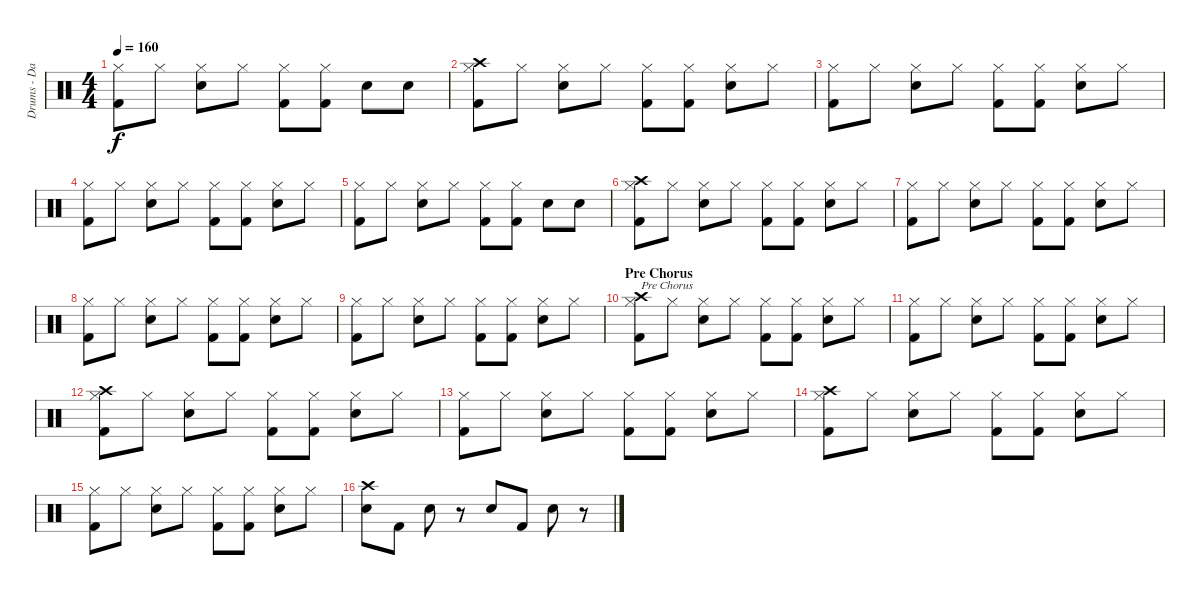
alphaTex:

\track ("Drums - Daniel Zimmermann" "Drums - Da") {instrument percussion}
\staff {score}
\articulation defaults
\ts (4 4)
\tempo 160
\clef neutral
\ks c
("Hi-Hat (closed)" "Kick (hit) 2").8{dy f} "Hi-Hat (closed)".8 ("Hi-Hat (closed)" "Snare (hit) 2").8 "Hi-Hat (closed)".8 ("Hi-Hat (closed)" "Kick (hit) 2").8 ("Hi-Hat (closed)" "Kick (hit) 2").8 "Snare (hit) 2".8 "Snare (hit) 2".8 |
("Hi-Hat (closed)" "Kick (hit) 2" "Crash high (hit)").8 "Hi-Hat (closed)".8 ("Hi-Hat (closed)" "Snare (hit) 2").8 "Hi-Hat (closed)".8 ("Hi-Hat (closed)" "Kick (hit) 2").8 ("Hi-Hat (closed)" "Kick (hit) 2").8 ("Hi-Hat (closed)" "Snare (hit) 2").8 "Hi-Hat (closed)".8 |
("Hi-Hat (closed)" "Kick (hit) 2").8 "Hi-Hat (closed)".8 ("Hi-Hat (closed)" "Snare (hit) 2").8 "Hi-Hat (closed)".8 ("Hi-Hat (closed)" "Kick (hit) 2").8 ("Hi-Hat (closed)" "Kick (hit) 2").8 ("Hi-Hat (closed)" "Snare (hit) 2").8 "Hi-Hat (closed)".8 |
("Hi-Hat (closed)" "Kick (hit) 2").8 "Hi-Hat (closed)".8 ("Hi-Hat (closed)" "Snare (hit) 2").8 "Hi-Hat (closed)".8 ("Hi-Hat (closed)" "Kick (hit) 2").8 ("Hi-Hat (closed)" "Kick (hit) 2").8 ("Hi-Hat (closed)" "Snare (hit) 2").8 "Hi-Hat (closed)".8 |
("Hi-Hat (closed)" "Kick (hit) 2").8 "Hi-Hat (closed)".8 ("Hi-Hat (closed)" "Snare (hit) 2").8 "Hi-Hat (closed)".8 ("Hi-Hat (closed)" "Kick (hit) 2").8 ("Hi-Hat (closed)" "Kick (hit) 2").8 "Snare (hit) 2".8 "Snare (hit) 2".8 |
("Hi-Hat (closed)" "Kick (hit) 2" "Crash high (hit)").8 "Hi-Hat (closed)".8 ("Hi-Hat (closed)" "Snare (hit) 2").8 "Hi-Hat (closed)".8 ("Hi-Hat (closed)" "Kick (hit) 2").8 ("Hi-Hat (closed)" "Kick (hit) 2").8 ("Hi-Hat (closed)" "Snare (hit) 2").8 "Hi-Hat (closed)".8 |
("Hi-Hat (closed)" "Kick (hit) 2").8 "Hi-Hat (closed)".8 ("Hi-Hat (closed)" "Snare (hit) 2").8 "Hi-Hat (closed)".8 ("Hi-Hat (closed)" "Kick (hit) 2").8 ("Hi-Hat (closed)" "Kick (hit) 2").8 ("Hi-Hat (closed)" "Snare (hit) 2").8 "Hi-Hat (closed)".8 |
("Hi-Hat (closed)" "Kick (hit) 2").8 "Hi-Hat (closed)".8 ("Hi-Hat (closed)" "Snare (hit) 2").8 "Hi-Hat (closed)".8 ("Hi-Hat (closed)" "Kick (hit) 2").8 ("Hi-Hat (closed)" "Kick (hit) 2").8 ("Hi-Hat (closed)" "Snare (hit) 2").8 "Hi-Hat (closed)".8 |
("Hi-Hat (closed)" "Kick (hit) 2").8 "Hi-Hat (closed)".8 ("Hi-Hat (closed)" "Snare (hit) 2").8 "Hi-Hat (closed)".8 ("Hi-Hat (closed)" "Kick (hit) 2").8 ("Hi-Hat (closed)" "Kick (hit) 2").8 ("Hi-Hat (closed)" "Snare (hit) 2").8 "Hi-Hat (closed)".8 |
\section ("" "Pre Chorus")
("Hi-Hat (closed)" "Kick (hit) 2" "Crash high (hit)").8{txt "Pre Chorus"} "Hi-Hat (closed)".8 ("Hi-Hat (closed)" "Snare (hit) 2").8 "Hi-Hat (closed)".8 ("Hi-Hat (closed)" "Kick (hit) 2").8 ("Hi-Hat (closed)" "Kick (hit) 2").8 ("Hi-Hat (closed)" "Snare (hit) 2").8 "Hi-Hat (closed)".8 |
("Hi-Hat (closed)" "Kick (hit) 2").8 "Hi-Hat (closed)".8 ("Hi-Hat (closed)" "Snare (hit) 2").8 "Hi-Hat (closed)".8 ("Hi-Hat (closed)" "Kick (hit) 2").8 ("Hi-Hat (closed)" "Kick (hit) 2").8 ("Hi-Hat (closed)" "Snare (hit) 2").8 "Hi-Hat (closed)".8 |
("Hi-Hat (closed)" "Kick (hit) 2" "Crash high (hit)").8 "Hi-Hat (closed)".8 ("Hi-Hat (closed)" "Snare (hit) 2").8 "Hi-Hat (closed)".8 ("Hi-Hat (closed)" "Kick (hit) 2").8 ("Hi-Hat (closed)" "Kick (hit) 2").8 ("Hi-Hat (closed)" "Snare (hit) 2").8 "Hi-Hat (closed)".8 |
("Hi-Hat (closed)" "Kick (hit) 2").8 "Hi-Hat (closed)".8 ("Hi-Hat (closed)" "Snare (hit) 2").8 "Hi-Hat (closed)".8 ("Hi-Hat (closed)" "Kick (hit) 2").8 ("Hi-Hat (closed)" "Kick (hit) 2").8 ("Hi-Hat (closed)" "Snare (hit) 2").8 "Hi-Hat (closed)".8 |
("Hi-Hat (closed)" "Kick (hit) 2" "Crash high (hit)").8 "Hi-Hat (closed)".8 ("Hi-Hat (closed)" "Snare (hit) 2").8 "Hi-Hat (closed)".8 ("Hi-Hat (closed)" "Kick (hit) 2").8 ("Hi-Hat (closed)" "Kick (hit) 2").8 ("Hi-Hat (closed)" "Snare (hit) 2").8 "Hi-Hat (closed)".8 |
("Hi-Hat (closed)" "Kick (hit) 2").8 "Hi-Hat (closed)".8 ("Hi-Hat (closed)" "Snare (hit) 2").8 "Hi-Hat (closed)".8 ("Hi-Hat (closed)" "Kick (hit) 2").8 ("Hi-Hat (closed)" "Kick (hit) 2").8 ("Hi-Hat (closed)" "Snare (hit) 2").8 "Hi-Hat (closed)".8 |
("Snare (hit) 2" "Crash high (hit)").8 "Kick (hit) 2".8 "Snare (hit) 2".8 r.8 "Snare (hit) 2".8 "Kick (hit) 2".8 "Snare (hit) 2".8 r.8
